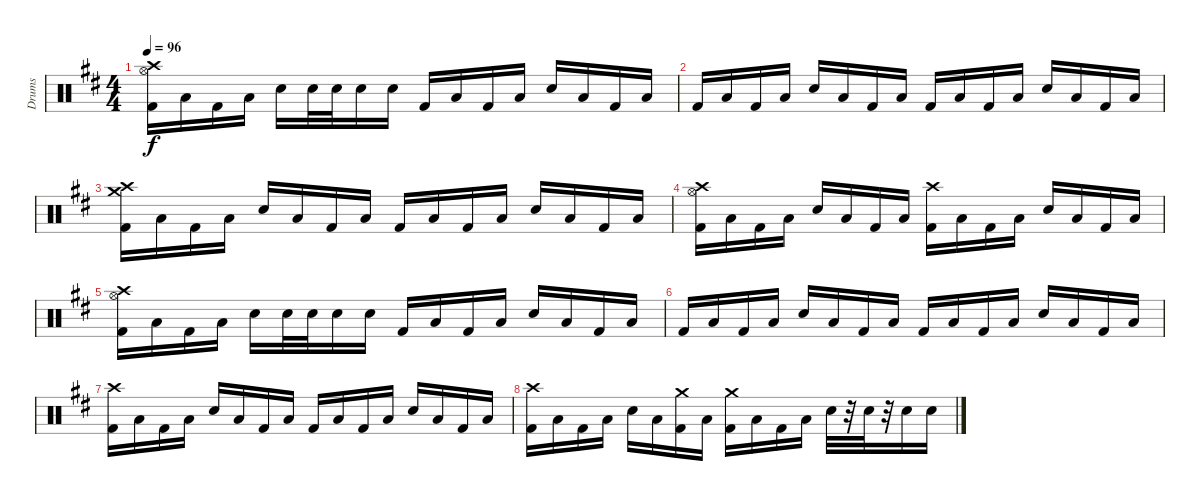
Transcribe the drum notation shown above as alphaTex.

\track ("Drums" "Drums") {instrument percussion}
\staff {score}
\articulation defaults
\ts (4 4)
\tempo 96
\clef neutral
\ks d
("Crash high (hit)" "Hi-Hat (open)" "Kick (hit) 2").16{dy f} "Low Tom (hit)".16 "Kick (hit) 2".16 "Low Tom (hit)".16 "Snare (hit) 2".16 "Electric Snare (hit)".32 "Electric Snare (hit)".32 "Electric Snare (hit)".16 "Snare (hit) 2".16 "Kick (hit) 2".16 "Low Tom (hit)".16 "Kick (hit) 2".16 "Low Tom (hit)".16 "Snare (hit) 2".16 "Low Tom (hit)".16 "Kick (hit) 2".16 "Low Tom (hit)".16 |
"Kick (hit) 2".16 "Low Tom (hit)".16 "Kick (hit) 2".16 "Low Tom (hit)".16 "Snare (hit) 2".16 "Low Tom (hit)".16 "Kick (hit) 2".16 "Low Tom (hit)".16 "Kick (hit) 2".16 "Low Tom (hit)".16 "Kick (hit) 2".16 "Low Tom (hit)".16 "Snare (hit) 2".16 "Low Tom (hit)".16 "Kick (hit) 2".16 "Low Tom (hit)".16 |
("Crash high (hit)" "Crash medium (hit)" "Kick (hit) 2").16 "Low Tom (hit)".16 "Kick (hit) 2".16 "Low Tom (hit)".16 "Snare (hit) 2".16 "Low Tom (hit)".16 "Kick (hit) 2".16 "Low Tom (hit)".16 "Kick (hit) 2".16 "Low Tom (hit)".16 "Kick (hit) 2".16 "Low Tom (hit)".16 "Snare (hit) 2".16 "Low Tom (hit)".16 "Kick (hit) 2".16 "Low Tom (hit)".16 |
("Crash high (hit)" "Hi-Hat (open)" "Kick (hit) 2").16 "Low Tom (hit)".16 "Kick (hit) 2".16 "Low Tom (hit)".16 "Snare (hit) 2".16 "Low Tom (hit)".16 "Kick (hit) 2".16 "Low Tom (hit)".16 ("Crash high (hit)" "Kick (hit) 2").16 "Low Tom (hit)".16 "Kick (hit) 2".16 "Low Tom (hit)".16 "Snare (hit) 2".16 "Low Tom (hit)".16 "Kick (hit) 2".16 "Low Tom (hit)".16 |
("Crash high (hit)" "Hi-Hat (open)" "Kick (hit) 2").16 "Low Tom (hit)".16 "Kick (hit) 2".16 "Low Tom (hit)".16 "Snare (hit) 2".16 "Electric Snare (hit)".32 "Electric Snare (hit)".32 "Electric Snare (hit)".16 "Snare (hit) 2".16 "Kick (hit) 2".16 "Low Tom (hit)".16 "Kick (hit) 2".16 "Low Tom (hit)".16 "Snare (hit) 2".16 "Low Tom (hit)".16 "Kick (hit) 2".16 "Low Tom (hit)".16 |
"Kick (hit) 2".16 "Low Tom (hit)".16 "Kick (hit) 2".16 "Low Tom (hit)".16 "Snare (hit) 2".16 "Low Tom (hit)".16 "Kick (hit) 2".16 "Low Tom (hit)".16 "Kick (hit) 2".16 "Low Tom (hit)".16 "Kick (hit) 2".16 "Low Tom (hit)".16 "Snare (hit) 2".16 "Low Tom (hit)".16 "Kick (hit) 2".16 "Low Tom (hit)".16 |
("Crash high (hit)" "Kick (hit) 2").16 "Low Tom (hit)".16 "Kick (hit) 2".16 "Low Tom (hit)".16 "Snare (hit) 2".16 "Low Tom (hit)".16 "Kick (hit) 2".16 "Low Tom (hit)".16 "Kick (hit) 2".16 "Low Tom (hit)".16 "Kick (hit) 2".16 "Low Tom (hit)".16 "Snare (hit) 2".16 "Low Tom (hit)".16 "Kick (hit) 2".16 "Low Tom (hit)".16 |
("Crash high (hit)" "Kick (hit) 2").16 "Low Tom (hit)".16 "Kick (hit) 2".16 "Low Tom (hit)".16 "Snare (hit) 2".16 "Low Tom (hit)".16 ("Crash medium (hit)" "Kick (hit) 2").16 "Low Tom (hit)".16 ("Crash medium (hit)" "Kick (hit) 2").16 "Low Tom (hit)".16 "Kick (hit) 2".16 "Low Tom (hit)".16 "Snare (hit) 2".32 r.32 "Snare (hit) 2".32 r.32 "Snare (hit) 2".16 "Snare (hit) 2".16
